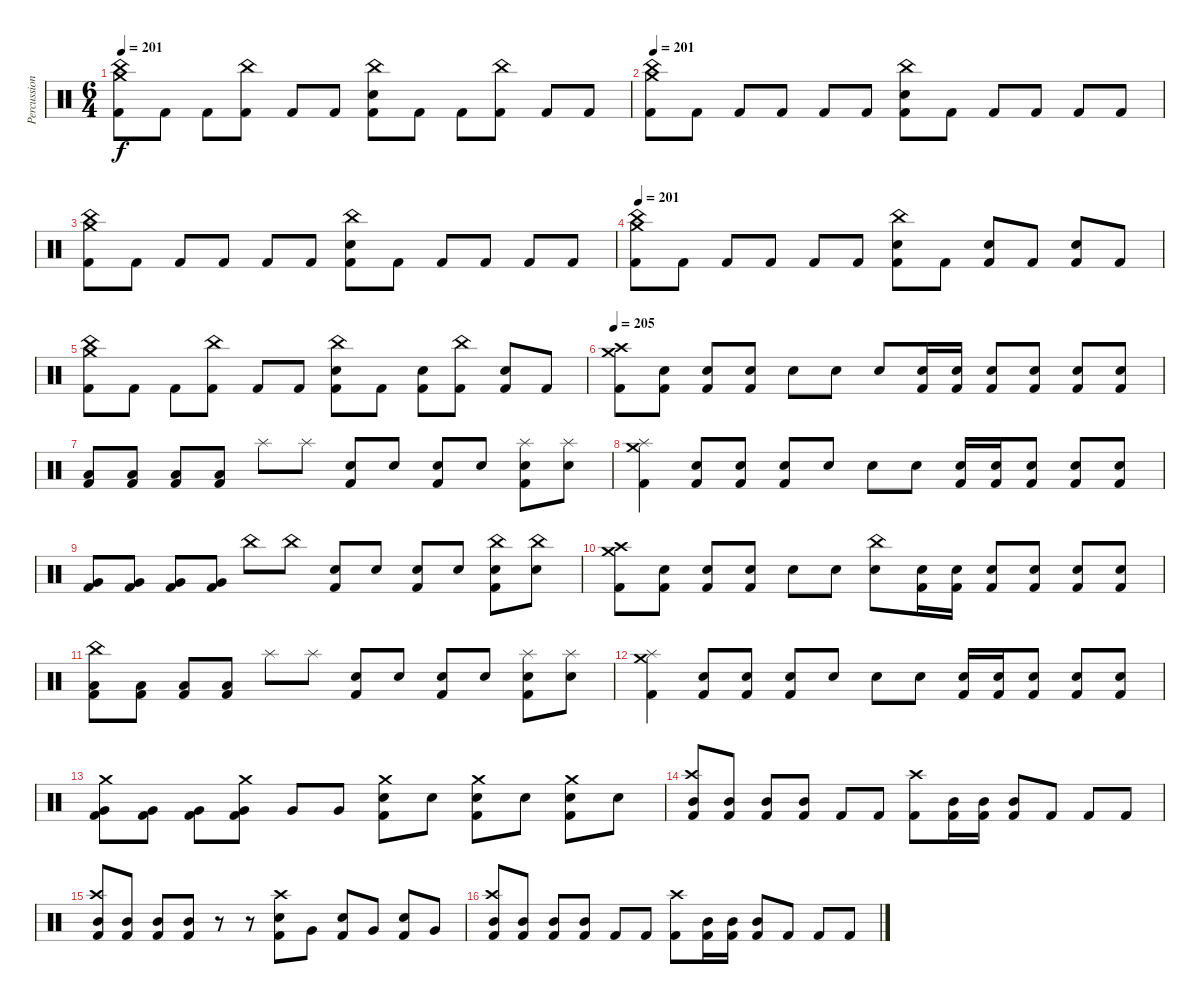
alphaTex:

\track ("Percussion" "Percussion") {instrument percussion}
\staff {score}
\articulation defaults
\ts (6 4)
\tempo 201
\clef neutral
\ks c
("Crash medium (hit)" "China (hit)" "Kick (hit) 2").8{dy f} "Kick (hit) 2".8 "Kick (hit) 2".8 ("China (hit)" "Kick (hit) 2").8 "Kick (hit) 2".8 "Kick (hit) 2".8 ("China (hit)" "Electric Snare (hit)" "Kick (hit) 2").8 "Kick (hit) 2".8 "Kick (hit) 2".8 ("China (hit)" "Kick (hit) 2").8 "Kick (hit) 2".8 "Kick (hit) 2".8 |
\tempo 201
("Crash medium (hit)" "China (hit)" "Kick (hit) 2").8 "Kick (hit) 2".8 "Kick (hit) 2".8 "Kick (hit) 2".8 "Kick (hit) 2".8 "Kick (hit) 2".8 ("China (hit)" "Electric Snare (hit)" "Kick (hit) 2").8 "Kick (hit) 2".8 "Kick (hit) 2".8 "Kick (hit) 2".8 "Kick (hit) 2".8 "Kick (hit) 2".8 |
("Crash medium (hit)" "China (hit)" "Kick (hit) 2").8 "Kick (hit) 2".8 "Kick (hit) 2".8 "Kick (hit) 2".8 "Kick (hit) 2".8 "Kick (hit) 2".8 ("China (hit)" "Electric Snare (hit)" "Kick (hit) 2").8 "Kick (hit) 2".8 "Kick (hit) 2".8 "Kick (hit) 2".8 "Kick (hit) 2".8 "Kick (hit) 2".8 |
\tempo 201
("Crash medium (hit)" "China (hit)" "Kick (hit) 2").8 "Kick (hit) 2".8 "Kick (hit) 2".8 "Kick (hit) 2".8 "Kick (hit) 2".8 "Kick (hit) 2".8 ("China (hit)" "Electric Snare (hit)" "Kick (hit) 2").8 "Kick (hit) 2".8 ("Electric Snare (hit)" "Kick (hit) 2").8 "Kick (hit) 2".8 ("Electric Snare (hit)" "Kick (hit) 2").8 "Kick (hit) 2".8 |
("Crash medium (hit)" "China (hit)" "Kick (hit) 2").8 "Kick (hit) 2".8 "Kick (hit) 2".8 ("China (hit)" "Kick (hit) 2").8 "Kick (hit) 2".8 "Kick (hit) 2".8 ("China (hit)" "Electric Snare (hit)" "Kick (hit) 2").8 "Kick (hit) 2".8 ("Electric Snare (hit)" "Kick (hit) 2").8 ("China (hit)" "Kick (hit) 2").8 ("Electric Snare (hit)" "Kick (hit) 2").8 "Kick (hit) 2".8 |
\tempo 205
("Crash medium (hit)" "Crash high (hit)" "Kick (hit) 2").8 ("Electric Snare (hit)" "Kick (hit) 2").8 ("Electric Snare (hit)" "Kick (hit) 2").8 ("Electric Snare (hit)" "Kick (hit) 2").8 "Electric Snare (hit)".8 "Electric Snare (hit)".8 "Electric Snare (hit)".8 ("Electric Snare (hit)" "Kick (hit) 2").16 ("Electric Snare (hit)" "Kick (hit) 2").16 ("Electric Snare (hit)" "Kick (hit) 2").8 ("Electric Snare (hit)" "Kick (hit) 2").8 ("Electric Snare (hit)" "Kick (hit) 2").8 ("Electric Snare (hit)" "Kick (hit) 2").8 |
("Low Floor Tom (hit)" "Kick (hit) 2").8 ("Low Floor Tom (hit)" "Kick (hit) 2").8 ("Low Floor Tom (hit)" "Kick (hit) 2").8 ("Low Floor Tom (hit)" "Kick (hit) 2").8 "Splash (hit)".8 "Splash (hit)".8 ("Electric Snare (hit)" "Kick (hit) 2").8 "Electric Snare (hit)".8 ("Electric Snare (hit)" "Kick (hit) 2").8 "Electric Snare (hit)".8 ("Splash (hit)" "Electric Snare (hit)" "Kick (hit) 2").8 ("Splash (hit)" "Electric Snare (hit)").8 |
("Crash medium (hit)" "Splash (hit)" "Kick (hit) 2").4 ("Electric Snare (hit)" "Kick (hit) 2").8 ("Electric Snare (hit)" "Kick (hit) 2").8 ("Electric Snare (hit)" "Kick (hit) 2").8 "Electric Snare (hit)".8 "Electric Snare (hit)".8 "Electric Snare (hit)".8 ("Electric Snare (hit)" "Kick (hit) 2").16 ("Electric Snare (hit)" "Kick (hit) 2").16 ("Electric Snare (hit)" "Kick (hit) 2").8 ("Electric Snare (hit)" "Kick (hit) 2").8 ("Electric Snare (hit)" "Kick (hit) 2").8 |
("Very Low Tom (hit)" "Kick (hit) 2").8 ("Very Low Tom (hit)" "Kick (hit) 2").8 ("Very Low Tom (hit)" "Kick (hit) 2").8 ("Very Low Tom (hit)" "Kick (hit) 2").8 "China (hit)".8 "China (hit)".8 ("Electric Snare (hit)" "Kick (hit) 2").8 "Electric Snare (hit)".8 ("Electric Snare (hit)" "Kick (hit) 2").8 "Electric Snare (hit)".8 ("China (hit)" "Electric Snare (hit)" "Kick (hit) 2").8 ("China (hit)" "Electric Snare (hit)").8 |
("Crash medium (hit)" "Crash high (hit)" "Kick (hit) 2").8 ("Electric Snare (hit)" "Kick (hit) 2").8 ("Electric Snare (hit)" "Kick (hit) 2").8 ("Electric Snare (hit)" "Kick (hit) 2").8 "Electric Snare (hit)".8 "Electric Snare (hit)".8 ("China (hit)" "Electric Snare (hit)").8 ("Electric Snare (hit)" "Kick (hit) 2").16 ("Electric Snare (hit)" "Kick (hit) 2").16 ("Electric Snare (hit)" "Kick (hit) 2").8 ("Electric Snare (hit)" "Kick (hit) 2").8 ("Electric Snare (hit)" "Kick (hit) 2").8 ("Electric Snare (hit)" "Kick (hit) 2").8 |
("China (hit)" "Low Floor Tom (hit)" "Kick (hit) 2").8 ("Low Floor Tom (hit)" "Kick (hit) 2").8 ("Low Floor Tom (hit)" "Kick (hit) 2").8 ("Low Floor Tom (hit)" "Kick (hit) 2").8 "Splash (hit)".8 "Splash (hit)".8 ("Electric Snare (hit)" "Kick (hit) 2").8 "Electric Snare (hit)".8 ("Electric Snare (hit)" "Kick (hit) 2").8 "Electric Snare (hit)".8 ("Splash (hit)" "Electric Snare (hit)" "Kick (hit) 2").8 ("Splash (hit)" "Electric Snare (hit)").8 |
("Crash medium (hit)" "Splash (hit)" "Kick (hit) 2").4 ("Electric Snare (hit)" "Kick (hit) 2").8 ("Electric Snare (hit)" "Kick (hit) 2").8 ("Electric Snare (hit)" "Kick (hit) 2").8 "Electric Snare (hit)".8 "Electric Snare (hit)".8 "Electric Snare (hit)".8 ("Electric Snare (hit)" "Kick (hit) 2").16 ("Electric Snare (hit)" "Kick (hit) 2").16 ("Electric Snare (hit)" "Kick (hit) 2").8 ("Electric Snare (hit)" "Kick (hit) 2").8 ("Electric Snare (hit)" "Kick (hit) 2").8 |
("Crash medium (hit)" "Very Low Tom (hit)" "Kick (hit) 2").8 ("Very Low Tom (hit)" "Kick (hit) 2").8 ("Very Low Tom (hit)" "Kick (hit) 2").8 ("Crash medium (hit)" "Very Low Tom (hit)" "Kick (hit) 2").8 "Very Low Tom (hit)".8 "Very Low Tom (hit)".8 ("Crash medium (hit)" "Electric Snare (hit)" "Kick (hit) 2").8 "Electric Snare (hit)".8 ("Crash medium (hit)" "Electric Snare (hit)" "Kick (hit) 2").8 "Electric Snare (hit)".8 ("Crash medium (hit)" "Electric Snare (hit)" "Kick (hit) 2").8 "Electric Snare (hit)".8 |
("Crash high (hit)" "Mid Tom (hit)" "Kick (hit) 2").8 ("Mid Tom (hit)" "Kick (hit) 2").8 ("Mid Tom (hit)" "Kick (hit) 2").8 ("Mid Tom (hit)" "Kick (hit) 2").8 "Kick (hit) 2".8 "Kick (hit) 2".8 ("Crash high (hit)" "Kick (hit) 2").8 ("Mid Tom (hit)" "Kick (hit) 2").16 ("Mid Tom (hit)" "Kick (hit) 2").16 ("Mid Tom (hit)" "Kick (hit) 2").8 "Kick (hit) 2".8 "Kick (hit) 2".8 "Kick (hit) 2".8 |
("Crash high (hit)" "Mid Tom (hit)" "Kick (hit) 2").8 ("Mid Tom (hit)" "Kick (hit) 2").8 ("Mid Tom (hit)" "Kick (hit) 2").8 ("Mid Tom (hit)" "Kick (hit) 2").8 r.8 r.8 ("Crash high (hit)" "Electric Snare (hit)" "Kick (hit) 2").8 "Very Low Tom (hit)".8 ("Electric Snare (hit)" "Kick (hit) 2").8 "Very Low Tom (hit)".8 ("Electric Snare (hit)" "Kick (hit) 2").8 "Very Low Tom (hit)".8 |
("Crash high (hit)" "Mid Tom (hit)" "Kick (hit) 2").8 ("Mid Tom (hit)" "Kick (hit) 2").8 ("Mid Tom (hit)" "Kick (hit) 2").8 ("Mid Tom (hit)" "Kick (hit) 2").8 "Kick (hit) 2".8 "Kick (hit) 2".8 ("Crash high (hit)" "Kick (hit) 2").8 ("Mid Tom (hit)" "Kick (hit) 2").16 ("Mid Tom (hit)" "Kick (hit) 2").16 ("Mid Tom (hit)" "Kick (hit) 2").8 "Kick (hit) 2".8 "Kick (hit) 2".8 "Kick (hit) 2".8
